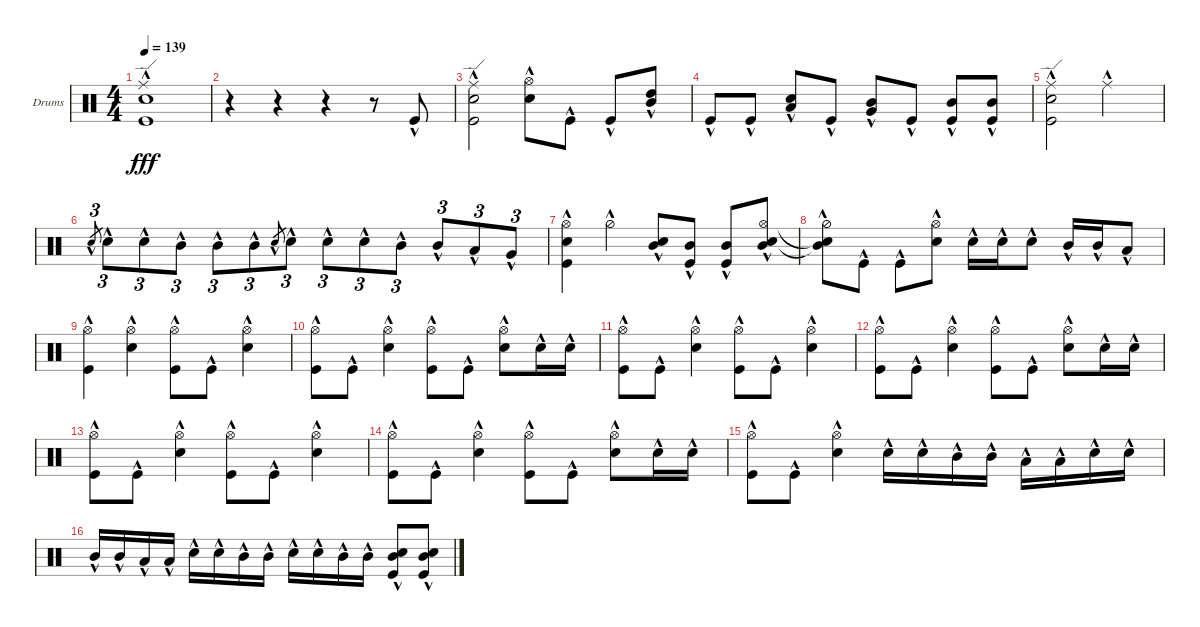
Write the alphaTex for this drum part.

\bracketExtendMode groupsimilarinstruments
\firstSystemTrackNameOrientation horizontal
\otherSystemsTrackNameOrientation horizontal
\track ("Drumkit" "Drums") {instrument percussion}
\staff {score}
\articulation defaults
\ts (4 4)
\tempo 139
\clef neutral
\ks c
("Kick (hit)"{hac} "Snare (hit) 2"{hac} "Ride (edge)"{hac}).1{dy fff} |
r.4 r.4 r.4 r.8 "Kick (hit)"{hac}.8 |
("Snare (hit) 2"{hac} "Ride (edge)"{hac} "Kick (hit)"{hac}).2 ("Snare (hit) 2"{hac} "Hi-Hat (open)"{hac}).8 "Kick (hit)"{hac}.8 "Kick (hit)"{hac}.8 ("High Tom (hit)"{hac} "Mid Tom (hit)"{hac}).8 |
"Kick (hit)"{hac}.8 "Kick (hit)"{hac}.8 ("Snare (hit) 2"{hac} "Low Tom (hit)"{hac}).8 "Kick (hit)"{hac}.8 ("Mid Tom (hit)"{hac} "Very Low Tom (hit)"{hac}).8 "Kick (hit)"{hac}.8 ("Kick (hit)"{hac} "Mid Tom (hit)"{hac}).8 ("Mid Tom (hit)"{hac} "Kick (hit)"{hac}).8 |
("Kick (hit)"{hac} "Ride (edge)"{hac} "Snare (hit) 2"{hac}).2 "Ride (middle)"{hac}.2 |
"Snare (hit) 2"{hac}.8{tu (3 2) gr} "Snare (hit) 2"{hac}.8{tu (3 2)} "Snare (hit) 2"{hac}.8{tu (3 2)} "Mid Tom (hit)"{hac}.8{tu (3 2)} "Mid Tom (hit)"{hac}.8{tu (3 2)} "Mid Tom (hit)"{hac}.8{tu (3 2)} "Snare (hit) 2"{hac}.8{tu (3 2) gr} "Snare (hit) 2"{hac}.8{tu (3 2)} "Snare (hit) 2"{hac}.8{tu (3 2)} "Snare (hit) 2"{hac}.8{tu (3 2)} "Mid Tom (hit)"{hac}.8{tu (3 2)} "Mid Tom (hit)"{hac}.8{tu (3 2)} "Low Tom (hit)"{hac}.8{tu (3 2)} "Very Low Tom (hit)"{hac}.8{tu (3 2)} |
("Kick (hit)"{hac} "Snare (hit) 2"{hac} "Hi-Hat (open)"{hac}).4 "Hi-Hat (half)"{hac}.4 ("Snare (hit) 2"{hac} "Mid Tom (hit)"{hac}).8 ("Kick (hit)"{hac} "Mid Tom (hit)"{hac}).8 ("Kick (hit)"{hac} "Mid Tom (hit)"{hac}).8 ("Snare (hit) 2"{hac} "Hi-Hat (open)"{hac} "Mid Tom (hit)"{hac}).8 |
("Mid Tom (hit)"{hac t} "Snare (hit) 2"{hac t} "Hi-Hat (half)"{hac}).8 "Kick (hit)"{hac}.8 "Kick (hit)"{hac}.8 ("Snare (hit) 2"{hac} "Hi-Hat (open)"{hac}).8 "Snare (hit) 2"{hac}.16 "Snare (hit) 2"{hac}.16 "Snare (hit) 2"{hac}.8 "Mid Tom (hit)"{hac}.16 "Mid Tom (hit)"{hac}.16 "Low Tom (hit)"{hac}.8 |
("Kick (hit)"{hac} "Hi-Hat (open)"{hac}).4 ("Hi-Hat (open)"{hac} "Snare (hit) 2"{hac}).4 ("Kick (hit)"{hac} "Hi-Hat (open)"{hac}).8 "Kick (hit)"{hac}.8 ("Hi-Hat (open)"{hac} "Snare (hit) 2"{hac}).4 |
("Kick (hit)"{hac} "Hi-Hat (open)"{hac}).8 "Kick (hit)"{hac}.8 ("Hi-Hat (open)"{hac} "Snare (hit) 2"{hac}).4 ("Kick (hit)"{hac} "Hi-Hat (open)"{hac}).8 "Kick (hit)"{hac}.8 ("Hi-Hat (open)"{hac} "Snare (hit) 2"{hac}).8 "Snare (hit) 2"{hac}.16 "Snare (hit) 2"{hac}.16 |
("Kick (hit)"{hac} "Hi-Hat (open)"{hac}).8 "Kick (hit)"{hac}.8 ("Hi-Hat (open)"{hac} "Snare (hit) 2"{hac}).4 ("Kick (hit)"{hac} "Hi-Hat (open)"{hac}).8 "Kick (hit)"{hac}.8 ("Hi-Hat (open)"{hac} "Snare (hit) 2"{hac}).4 |
("Kick (hit)"{hac} "Hi-Hat (open)"{hac}).8 "Kick (hit)"{hac}.8 ("Hi-Hat (open)"{hac} "Snare (hit) 2"{hac}).4 ("Kick (hit)"{hac} "Hi-Hat (open)"{hac}).8 "Kick (hit)"{hac}.8 ("Hi-Hat (open)"{hac} "Snare (hit) 2"{hac}).8 "Snare (hit) 2"{hac}.16 "Snare (hit) 2"{hac}.16 |
("Kick (hit)"{hac} "Hi-Hat (open)"{hac}).8 "Kick (hit)"{hac}.8 ("Hi-Hat (open)"{hac} "Snare (hit) 2"{hac}).4 ("Kick (hit)"{hac} "Hi-Hat (open)"{hac}).8 "Kick (hit)"{hac}.8 ("Hi-Hat (open)"{hac} "Snare (hit) 2"{hac}).4 |
("Kick (hit)"{hac} "Hi-Hat (open)"{hac}).8 "Kick (hit)"{hac}.8 ("Hi-Hat (open)"{hac} "Snare (hit) 2"{hac}).4 ("Kick (hit)"{hac} "Hi-Hat (open)"{hac}).8 "Kick (hit)"{hac}.8 ("Hi-Hat (open)"{hac} "Snare (hit) 2"{hac}).8 "Snare (hit) 2"{hac}.16 "Snare (hit) 2"{hac}.16 |
("Kick (hit)"{hac} "Hi-Hat (open)"{hac}).8 "Kick (hit)"{hac}.8 ("Hi-Hat (open)"{hac} "Snare (hit) 2"{hac}).4 "Snare (hit) 2"{hac}.16 "Snare (hit) 2"{hac}.16 "Mid Tom (hit)"{hac}.16 "Mid Tom (hit)"{hac}.16 "Low Tom (hit)"{hac}.16 "Low Tom (hit)"{hac}.16 "Snare (hit) 2"{hac}.16 "Snare (hit) 2"{hac}.16 |
"Mid Tom (hit)"{hac}.16 "Mid Tom (hit)"{hac}.16 "Low Tom (hit)"{hac}.16 "Low Tom (hit)"{hac}.16 "Snare (hit) 2"{hac}.16 "Snare (hit) 2"{hac}.16 "Mid Tom (hit)"{hac}.16 "Mid Tom (hit)"{hac}.16 "Snare (hit) 2"{hac}.16 "Snare (hit) 2"{hac}.16 "Mid Tom (hit)"{hac}.16 "Mid Tom (hit)"{hac}.16 ("Mid Tom (hit)"{hac} "Kick (hit)"{hac} "Snare (hit) 2"{hac}).8 ("Kick (hit)"{hac} "Mid Tom (hit)"{hac} "Snare (hit) 2"{hac}).8
